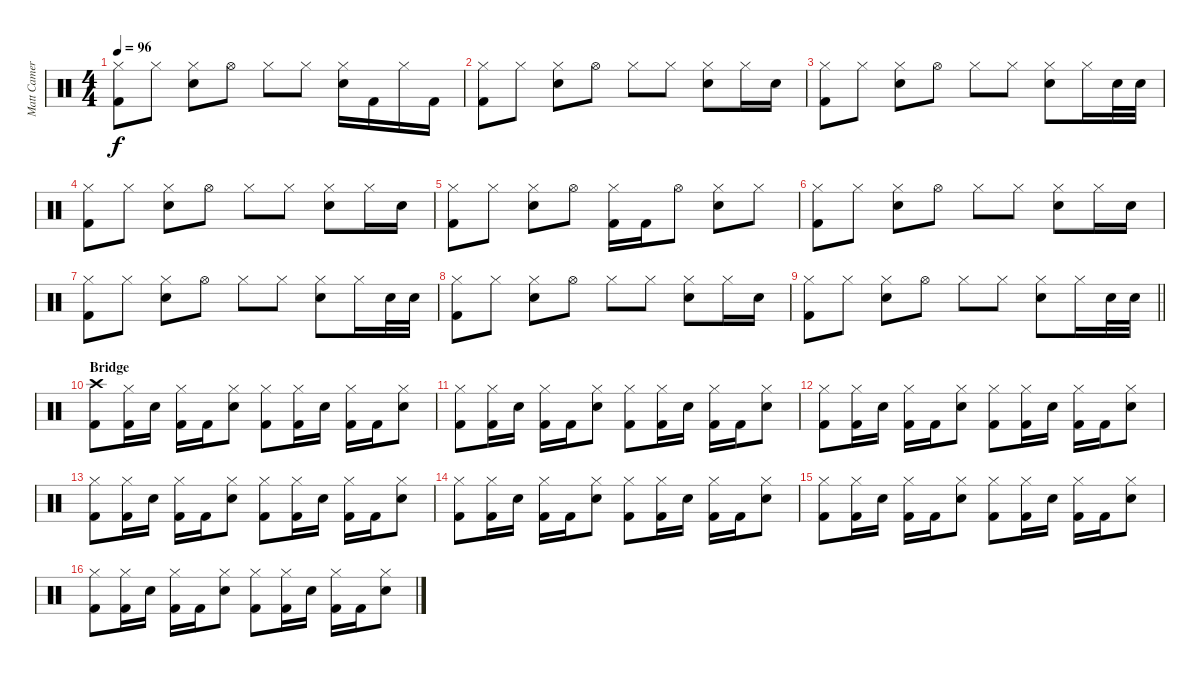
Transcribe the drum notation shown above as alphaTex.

\track ("Matt Cameron" "Matt Camer") {instrument percussion}
\staff {score}
\articulation defaults
\ts (4 4)
\tempo 96
\clef neutral
\ks c
("Hi-Hat (closed)" "Kick (hit) 2").8{dy f} "Hi-Hat (closed)".8 ("Hi-Hat (closed)" "Electric Snare (hit)").8 "Hi-Hat (open)".8 "Hi-Hat (closed)".8 "Hi-Hat (closed)".8 ("Hi-Hat (closed)" "Electric Snare (hit)").16 "Kick (hit) 2".16 "Hi-Hat (closed)".16 "Kick (hit) 2".16 |
("Hi-Hat (closed)" "Kick (hit) 2").8 "Hi-Hat (closed)".8 ("Hi-Hat (closed)" "Electric Snare (hit)").8 "Hi-Hat (open)".8 "Hi-Hat (closed)".8 "Hi-Hat (closed)".8 ("Hi-Hat (closed)" "Electric Snare (hit)").8 "Hi-Hat (closed)".16 "Electric Snare (hit)".16 |
("Hi-Hat (closed)" "Kick (hit) 2").8 "Hi-Hat (closed)".8 ("Hi-Hat (closed)" "Electric Snare (hit)").8 "Hi-Hat (open)".8 "Hi-Hat (closed)".8 "Hi-Hat (closed)".8 ("Hi-Hat (closed)" "Electric Snare (hit)").8 "Hi-Hat (closed)".16 "Electric Snare (hit)".32 "Electric Snare (hit)".32 |
("Hi-Hat (closed)" "Kick (hit) 2").8 "Hi-Hat (closed)".8 ("Hi-Hat (closed)" "Electric Snare (hit)").8 "Hi-Hat (open)".8 "Hi-Hat (closed)".8 "Hi-Hat (closed)".8 ("Hi-Hat (closed)" "Electric Snare (hit)").8 "Hi-Hat (closed)".16 "Electric Snare (hit)".16 |
("Hi-Hat (closed)" "Kick (hit) 2").8 "Hi-Hat (closed)".8 ("Hi-Hat (closed)" "Electric Snare (hit)").8 "Hi-Hat (open)".8 ("Hi-Hat (closed)" "Kick (hit) 2").16 "Kick (hit) 2".16 "Hi-Hat (open)".8 ("Hi-Hat (closed)" "Electric Snare (hit)").8 "Hi-Hat (closed)".8 |
("Hi-Hat (closed)" "Kick (hit) 2").8 "Hi-Hat (closed)".8 ("Hi-Hat (closed)" "Electric Snare (hit)").8 "Hi-Hat (open)".8 "Hi-Hat (closed)".8 "Hi-Hat (closed)".8 ("Hi-Hat (closed)" "Electric Snare (hit)").8 "Hi-Hat (closed)".16 "Electric Snare (hit)".16 |
("Hi-Hat (closed)" "Kick (hit) 2").8 "Hi-Hat (closed)".8 ("Hi-Hat (closed)" "Electric Snare (hit)").8 "Hi-Hat (open)".8 "Hi-Hat (closed)".8 "Hi-Hat (closed)".8 ("Hi-Hat (closed)" "Electric Snare (hit)").8 "Hi-Hat (closed)".16 "Electric Snare (hit)".32 "Electric Snare (hit)".32 |
("Hi-Hat (closed)" "Kick (hit) 2").8 "Hi-Hat (closed)".8 ("Hi-Hat (closed)" "Electric Snare (hit)").8 "Hi-Hat (open)".8 "Hi-Hat (closed)".8 "Hi-Hat (closed)".8 ("Hi-Hat (closed)" "Electric Snare (hit)").8 "Hi-Hat (closed)".16 "Electric Snare (hit)".16 |
\barLineRight lightlight
("Hi-Hat (closed)" "Kick (hit) 2").8 "Hi-Hat (closed)".8 ("Hi-Hat (closed)" "Electric Snare (hit)").8 "Hi-Hat (open)".8 "Hi-Hat (closed)".8 "Hi-Hat (closed)".8 ("Hi-Hat (closed)" "Electric Snare (hit)").8 "Hi-Hat (closed)".16 "Electric Snare (hit)".32 "Electric Snare (hit)".32 |
\section ("" "Bridge")
("Crash high (hit)" "Kick (hit) 2").8 ("Hi-Hat (closed)" "Kick (hit) 2").16 "Electric Snare (hit)".16 ("Hi-Hat (closed)" "Kick (hit) 2").16 "Kick (hit) 2".16 ("Hi-Hat (closed)" "Electric Snare (hit)").8 ("Hi-Hat (closed)" "Kick (hit) 2").8 ("Hi-Hat (closed)" "Kick (hit) 2").16 "Electric Snare (hit)".16 ("Hi-Hat (closed)" "Kick (hit) 2").16 "Kick (hit) 2".16 ("Hi-Hat (closed)" "Electric Snare (hit)").8 |
("Hi-Hat (closed)" "Kick (hit) 2").8 ("Hi-Hat (closed)" "Kick (hit) 2").16 "Electric Snare (hit)".16 ("Hi-Hat (closed)" "Kick (hit) 2").16 "Kick (hit) 2".16 ("Hi-Hat (closed)" "Electric Snare (hit)").8 ("Hi-Hat (closed)" "Kick (hit) 2").8 ("Hi-Hat (closed)" "Kick (hit) 2").16 "Electric Snare (hit)".16 ("Hi-Hat (closed)" "Kick (hit) 2").16 "Kick (hit) 2".16 ("Hi-Hat (closed)" "Electric Snare (hit)").8 |
("Hi-Hat (closed)" "Kick (hit) 2").8 ("Hi-Hat (closed)" "Kick (hit) 2").16 "Electric Snare (hit)".16 ("Hi-Hat (closed)" "Kick (hit) 2").16 "Kick (hit) 2".16 ("Hi-Hat (closed)" "Electric Snare (hit)").8 ("Hi-Hat (closed)" "Kick (hit) 2").8 ("Hi-Hat (closed)" "Kick (hit) 2").16 "Electric Snare (hit)".16 ("Hi-Hat (closed)" "Kick (hit) 2").16 "Kick (hit) 2".16 ("Hi-Hat (closed)" "Electric Snare (hit)").8 |
("Hi-Hat (closed)" "Kick (hit) 2").8 ("Hi-Hat (closed)" "Kick (hit) 2").16 "Electric Snare (hit)".16 ("Hi-Hat (closed)" "Kick (hit) 2").16 "Kick (hit) 2".16 ("Hi-Hat (closed)" "Electric Snare (hit)").8 ("Hi-Hat (closed)" "Kick (hit) 2").8 ("Hi-Hat (closed)" "Kick (hit) 2").16 "Electric Snare (hit)".16 ("Hi-Hat (closed)" "Kick (hit) 2").16 "Kick (hit) 2".16 ("Hi-Hat (closed)" "Electric Snare (hit)").8 |
("Hi-Hat (closed)" "Kick (hit) 2").8 ("Hi-Hat (closed)" "Kick (hit) 2").16 "Electric Snare (hit)".16 ("Hi-Hat (closed)" "Kick (hit) 2").16 "Kick (hit) 2".16 ("Hi-Hat (closed)" "Electric Snare (hit)").8 ("Hi-Hat (closed)" "Kick (hit) 2").8 ("Hi-Hat (closed)" "Kick (hit) 2").16 "Electric Snare (hit)".16 ("Hi-Hat (closed)" "Kick (hit) 2").16 "Kick (hit) 2".16 ("Hi-Hat (closed)" "Electric Snare (hit)").8 |
("Hi-Hat (closed)" "Kick (hit) 2").8 ("Hi-Hat (closed)" "Kick (hit) 2").16 "Electric Snare (hit)".16 ("Hi-Hat (closed)" "Kick (hit) 2").16 "Kick (hit) 2".16 ("Hi-Hat (closed)" "Electric Snare (hit)").8 ("Hi-Hat (closed)" "Kick (hit) 2").8 ("Hi-Hat (closed)" "Kick (hit) 2").16 "Electric Snare (hit)".16 ("Hi-Hat (closed)" "Kick (hit) 2").16 "Kick (hit) 2".16 ("Hi-Hat (closed)" "Electric Snare (hit)").8 |
("Hi-Hat (closed)" "Kick (hit) 2").8 ("Hi-Hat (closed)" "Kick (hit) 2").16 "Electric Snare (hit)".16 ("Hi-Hat (closed)" "Kick (hit) 2").16 "Kick (hit) 2".16 ("Hi-Hat (closed)" "Electric Snare (hit)").8 ("Hi-Hat (closed)" "Kick (hit) 2").8 ("Hi-Hat (closed)" "Kick (hit) 2").16 "Electric Snare (hit)".16 ("Hi-Hat (closed)" "Kick (hit) 2").16 "Kick (hit) 2".16 ("Hi-Hat (closed)" "Electric Snare (hit)").8
